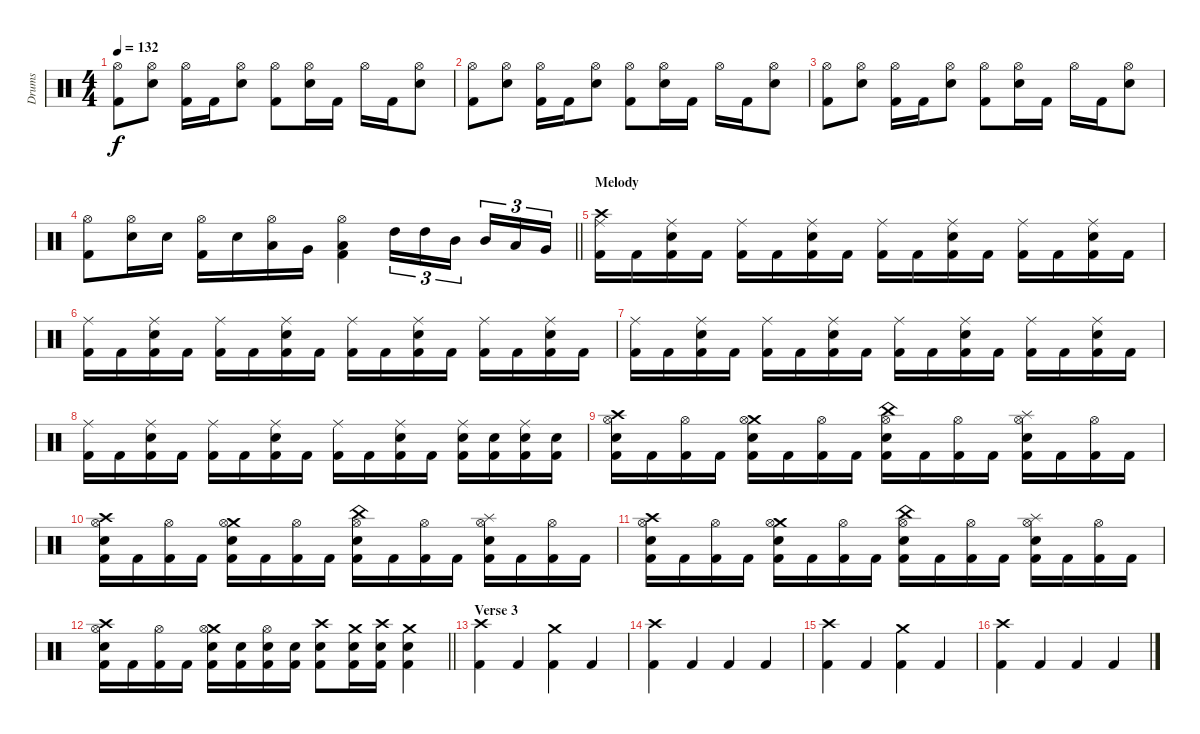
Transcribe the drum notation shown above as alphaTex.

\track ("Drums" "Drums") {instrument percussion}
\staff {score}
\articulation defaults
\ts (4 4)
\tempo 132
\clef neutral
\ks c
("Hi-Hat (open)" "Kick (hit) 2").8{dy f} ("Hi-Hat (open)" "Snare (hit) 2").8 ("Hi-Hat (open)" "Kick (hit) 2").16 "Kick (hit) 2".16 ("Hi-Hat (open)" "Snare (hit) 2").8 ("Hi-Hat (open)" "Kick (hit) 2").8 ("Hi-Hat (open)" "Snare (hit) 2").16 "Kick (hit) 2".16 "Hi-Hat (open)".16 "Kick (hit) 2".16 ("Hi-Hat (open)" "Snare (hit) 2").8 |
("Hi-Hat (open)" "Kick (hit) 2").8 ("Hi-Hat (open)" "Snare (hit) 2").8 ("Hi-Hat (open)" "Kick (hit) 2").16 "Kick (hit) 2".16 ("Hi-Hat (open)" "Snare (hit) 2").8 ("Hi-Hat (open)" "Kick (hit) 2").8 ("Hi-Hat (open)" "Snare (hit) 2").16 "Kick (hit) 2".16 "Hi-Hat (open)".16 "Kick (hit) 2".16 ("Hi-Hat (open)" "Snare (hit) 2").8 |
("Hi-Hat (open)" "Kick (hit) 2").8 ("Hi-Hat (open)" "Snare (hit) 2").8 ("Hi-Hat (open)" "Kick (hit) 2").16 "Kick (hit) 2".16 ("Hi-Hat (open)" "Snare (hit) 2").8 ("Hi-Hat (open)" "Kick (hit) 2").8 ("Hi-Hat (open)" "Snare (hit) 2").16 "Kick (hit) 2".16 "Hi-Hat (open)".16 "Kick (hit) 2".16 ("Hi-Hat (open)" "Snare (hit) 2").8 |
\barLineRight lightlight
("Hi-Hat (open)" "Kick (hit) 2").8 ("Hi-Hat (open)" "Snare (hit) 2").16 "Snare (hit) 2".16 ("Hi-Hat (open)" "Kick (hit) 2").16 "Snare (hit) 2".16 ("Hi-Hat (open)" "Low Tom (hit)").16 "Very Low Tom (hit)".16 ("Hi-Hat (open)" "Low Floor Tom (hit)" "Kick (hit) 2").4 "High Tom (hit)".16{tu (3 2)} "High Tom (hit)".16{tu (3 2)} "Mid Tom (hit)".16{tu (3 2) beam splitsecondary} "Mid Tom (hit)".16{tu (3 2)} "Low Tom (hit)".16{tu (3 2)} "Very Low Tom (hit)".16{tu (3 2)} |
\section ("" "Melody")
("Crash high (hit)" "Ride (middle)" "Kick (hit) 2").16 "Kick (hit) 2".16 ("Ride (middle)" "Snare (hit) 2" "Kick (hit) 2").16 "Kick (hit) 2".16 ("Ride (middle)" "Kick (hit) 2").16 "Kick (hit) 2".16 ("Ride (middle)" "Snare (hit) 2" "Kick (hit) 2").16 "Kick (hit) 2".16 ("Ride (middle)" "Kick (hit) 2").16 "Kick (hit) 2".16 ("Ride (middle)" "Snare (hit) 2" "Kick (hit) 2").16 "Kick (hit) 2".16 ("Ride (middle)" "Kick (hit) 2").16 "Kick (hit) 2".16 ("Ride (middle)" "Snare (hit) 2" "Kick (hit) 2").16 "Kick (hit) 2".16 |
("Ride (middle)" "Kick (hit) 2").16 "Kick (hit) 2".16 ("Ride (middle)" "Snare (hit) 2" "Kick (hit) 2").16 "Kick (hit) 2".16 ("Ride (middle)" "Kick (hit) 2").16 "Kick (hit) 2".16 ("Ride (middle)" "Snare (hit) 2" "Kick (hit) 2").16 "Kick (hit) 2".16 ("Ride (middle)" "Kick (hit) 2").16 "Kick (hit) 2".16 ("Ride (middle)" "Snare (hit) 2" "Kick (hit) 2").16 "Kick (hit) 2".16 ("Ride (middle)" "Kick (hit) 2").16 "Kick (hit) 2".16 ("Ride (middle)" "Snare (hit) 2" "Kick (hit) 2").16 "Kick (hit) 2".16 |
("Ride (middle)" "Kick (hit) 2").16 "Kick (hit) 2".16 ("Ride (middle)" "Snare (hit) 2" "Kick (hit) 2").16 "Kick (hit) 2".16 ("Ride (middle)" "Kick (hit) 2").16 "Kick (hit) 2".16 ("Ride (middle)" "Snare (hit) 2" "Kick (hit) 2").16 "Kick (hit) 2".16 ("Ride (middle)" "Kick (hit) 2").16 "Kick (hit) 2".16 ("Ride (middle)" "Snare (hit) 2" "Kick (hit) 2").16 "Kick (hit) 2".16 ("Ride (middle)" "Kick (hit) 2").16 "Kick (hit) 2".16 ("Ride (middle)" "Snare (hit) 2" "Kick (hit) 2").16 "Kick (hit) 2".16 |
("Ride (middle)" "Kick (hit) 2").16 "Kick (hit) 2".16 ("Ride (middle)" "Snare (hit) 2" "Kick (hit) 2").16 "Kick (hit) 2".16 ("Ride (middle)" "Kick (hit) 2").16 "Kick (hit) 2".16 ("Ride (middle)" "Snare (hit) 2" "Kick (hit) 2").16 "Kick (hit) 2".16 ("Ride (middle)" "Kick (hit) 2").16 "Kick (hit) 2".16 ("Ride (middle)" "Snare (hit) 2" "Kick (hit) 2").16 "Kick (hit) 2".16 ("Ride (middle)" "Snare (hit) 2" "Kick (hit) 2").16 ("Snare (hit) 2" "Kick (hit) 2").16 ("Ride (middle)" "Snare (hit) 2" "Kick (hit) 2").16 ("Snare (hit) 2" "Kick (hit) 2").16 |
("Crash high (hit)" "Hi-Hat (open)" "Snare (hit) 2" "Kick (hit) 2").16 "Kick (hit) 2".16 ("Hi-Hat (open)" "Kick (hit) 2").16 "Kick (hit) 2".16 ("Crash medium (hit)" "Hi-Hat (open)" "Snare (hit) 2" "Kick (hit) 2").16 "Kick (hit) 2".16 ("Hi-Hat (open)" "Kick (hit) 2").16 "Kick (hit) 2".16 ("China (hit)" "Hi-Hat (open)" "Snare (hit) 2" "Kick (hit) 2").16 "Kick (hit) 2".16 ("Hi-Hat (open)" "Kick (hit) 2").16 "Kick (hit) 2".16 ("Splash (hit)" "Hi-Hat (open)" "Snare (hit) 2" "Kick (hit) 2").16 "Kick (hit) 2".16 ("Hi-Hat (open)" "Kick (hit) 2").16 "Kick (hit) 2".16 |
("Crash high (hit)" "Hi-Hat (open)" "Snare (hit) 2" "Kick (hit) 2").16 "Kick (hit) 2".16 ("Hi-Hat (open)" "Kick (hit) 2").16 "Kick (hit) 2".16 ("Crash medium (hit)" "Hi-Hat (open)" "Snare (hit) 2" "Kick (hit) 2").16 "Kick (hit) 2".16 ("Hi-Hat (open)" "Kick (hit) 2").16 "Kick (hit) 2".16 ("China (hit)" "Hi-Hat (open)" "Snare (hit) 2" "Kick (hit) 2").16 "Kick (hit) 2".16 ("Hi-Hat (open)" "Kick (hit) 2").16 "Kick (hit) 2".16 ("Splash (hit)" "Hi-Hat (open)" "Snare (hit) 2" "Kick (hit) 2").16 "Kick (hit) 2".16 ("Hi-Hat (open)" "Kick (hit) 2").16 "Kick (hit) 2".16 |
("Crash high (hit)" "Hi-Hat (open)" "Snare (hit) 2" "Kick (hit) 2").16 "Kick (hit) 2".16 ("Hi-Hat (open)" "Kick (hit) 2").16 "Kick (hit) 2".16 ("Crash medium (hit)" "Hi-Hat (open)" "Snare (hit) 2" "Kick (hit) 2").16 "Kick (hit) 2".16 ("Hi-Hat (open)" "Kick (hit) 2").16 "Kick (hit) 2".16 ("China (hit)" "Hi-Hat (open)" "Snare (hit) 2" "Kick (hit) 2").16 "Kick (hit) 2".16 ("Hi-Hat (open)" "Kick (hit) 2").16 "Kick (hit) 2".16 ("Splash (hit)" "Hi-Hat (open)" "Snare (hit) 2" "Kick (hit) 2").16 "Kick (hit) 2".16 ("Hi-Hat (open)" "Kick (hit) 2").16 "Kick (hit) 2".16 |
\barLineRight lightlight
("Crash high (hit)" "Hi-Hat (open)" "Snare (hit) 2" "Kick (hit) 2").16 "Kick (hit) 2".16 ("Hi-Hat (open)" "Kick (hit) 2").16 "Kick (hit) 2".16 ("Crash medium (hit)" "Hi-Hat (open)" "Snare (hit) 2" "Kick (hit) 2").16 ("Snare (hit) 2" "Kick (hit) 2").16 ("Hi-Hat (open)" "Snare (hit) 2" "Kick (hit) 2").16 ("Snare (hit) 2" "Kick (hit) 2").16 ("Crash high (hit)" "Snare (hit) 2" "Kick (hit) 2").8 ("Crash medium (hit)" "Snare (hit) 2" "Kick (hit) 2").16 ("Crash high (hit)" "Snare (hit) 2" "Kick (hit) 2").16 ("Crash medium (hit)" "Snare (hit) 2" "Kick (hit) 2").4 |
\section ("" "Verse 3")
("Crash high (hit)" "Kick (hit) 2").4 "Kick (hit) 2".4 ("Crash medium (hit)" "Kick (hit) 2").4 "Kick (hit) 2".4 |
("Crash high (hit)" "Kick (hit) 2").4 "Kick (hit) 2".4 "Kick (hit) 2".4 "Kick (hit) 2".4 |
("Crash high (hit)" "Kick (hit) 2").4 "Kick (hit) 2".4 ("Crash medium (hit)" "Kick (hit) 2").4 "Kick (hit) 2".4 |
("Crash high (hit)" "Kick (hit) 2").4 "Kick (hit) 2".4 "Kick (hit) 2".4 "Kick (hit) 2".4
